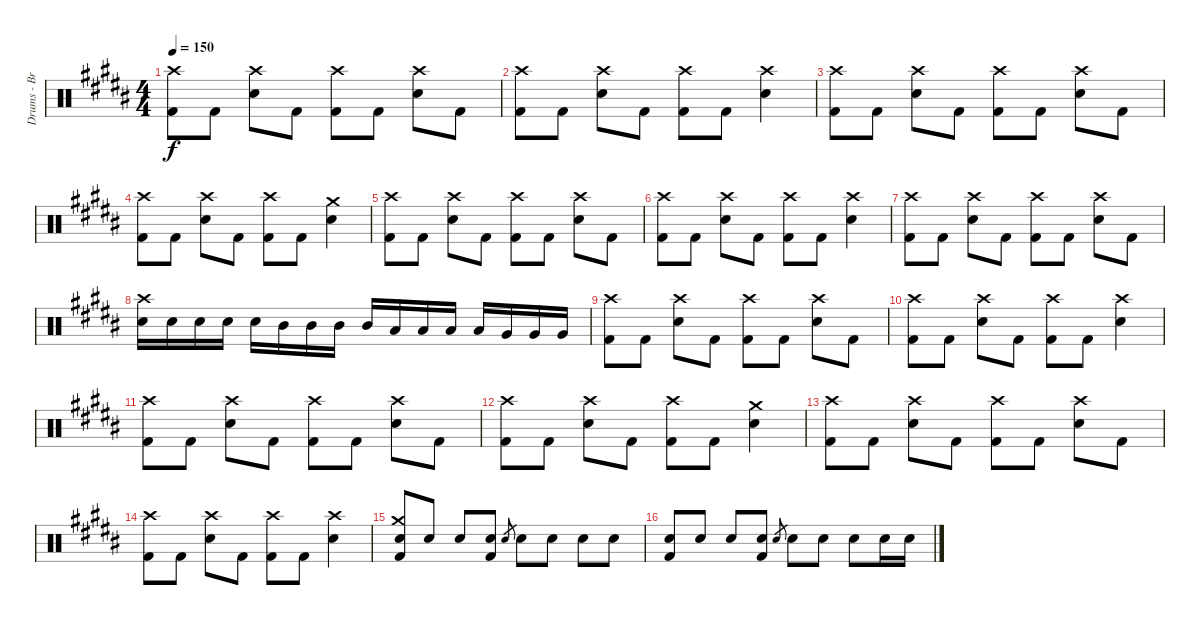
\track ("Drums - Brandon" "Drums - Br") {instrument percussion}
\staff {score}
\articulation defaults
\ts (4 4)
\tempo 150
\clef neutral
\ks b
("Crash high (hit)" "Kick (hit) 2").8{dy f} "Kick (hit) 2".8 ("Crash high (hit)" "Snare (hit) 2").8 "Kick (hit) 2".8 ("Crash high (hit)" "Kick (hit) 2").8 "Kick (hit) 2".8 ("Crash high (hit)" "Snare (hit) 2").8 "Kick (hit) 2".8 |
("Crash high (hit)" "Kick (hit) 2").8 "Kick (hit) 2".8 ("Crash high (hit)" "Snare (hit) 2").8 "Kick (hit) 2".8 ("Crash high (hit)" "Kick (hit) 2").8 "Kick (hit) 2".8 ("Crash high (hit)" "Snare (hit) 2").4 |
("Crash high (hit)" "Kick (hit) 2").8 "Kick (hit) 2".8 ("Crash high (hit)" "Snare (hit) 2").8 "Kick (hit) 2".8 ("Crash high (hit)" "Kick (hit) 2").8 "Kick (hit) 2".8 ("Crash high (hit)" "Snare (hit) 2").8 "Kick (hit) 2".8 |
("Crash high (hit)" "Kick (hit) 2").8 "Kick (hit) 2".8 ("Crash high (hit)" "Snare (hit) 2").8 "Kick (hit) 2".8 ("Crash high (hit)" "Kick (hit) 2").8 "Kick (hit) 2".8 ("Crash medium (hit)" "Snare (hit) 2").4 |
("Crash high (hit)" "Kick (hit) 2").8 "Kick (hit) 2".8 ("Crash high (hit)" "Snare (hit) 2").8 "Kick (hit) 2".8 ("Crash high (hit)" "Kick (hit) 2").8 "Kick (hit) 2".8 ("Crash high (hit)" "Snare (hit) 2").8 "Kick (hit) 2".8 |
("Crash high (hit)" "Kick (hit) 2").8 "Kick (hit) 2".8 ("Crash high (hit)" "Snare (hit) 2").8 "Kick (hit) 2".8 ("Crash high (hit)" "Kick (hit) 2").8 "Kick (hit) 2".8 ("Crash high (hit)" "Snare (hit) 2").4 |
("Crash high (hit)" "Kick (hit) 2").8 "Kick (hit) 2".8 ("Crash high (hit)" "Snare (hit) 2").8 "Kick (hit) 2".8 ("Crash high (hit)" "Kick (hit) 2").8 "Kick (hit) 2".8 ("Crash high (hit)" "Snare (hit) 2").8 "Kick (hit) 2".8 |
("Crash high (hit)" "Snare (hit) 2").16 "Snare (hit) 2".16 "Snare (hit) 2".16 "Snare (hit) 2".16 "Snare (hit) 2".16 "Mid Tom (hit)".16 "Mid Tom (hit)".16 "Mid Tom (hit)".16 "Mid Tom (hit)".16 "Low Tom (hit)".16 "Low Tom (hit)".16 "Low Tom (hit)".16 "Low Tom (hit)".16 "Very Low Tom (hit)".16 "Very Low Tom (hit)".16 "Very Low Tom (hit)".16 |
("Crash high (hit)" "Kick (hit) 2").8 "Kick (hit) 2".8 ("Crash high (hit)" "Snare (hit) 2").8 "Kick (hit) 2".8 ("Crash high (hit)" "Kick (hit) 2").8 "Kick (hit) 2".8 ("Crash high (hit)" "Snare (hit) 2").8 "Kick (hit) 2".8 |
("Crash high (hit)" "Kick (hit) 2").8 "Kick (hit) 2".8 ("Crash high (hit)" "Snare (hit) 2").8 "Kick (hit) 2".8 ("Crash high (hit)" "Kick (hit) 2").8 "Kick (hit) 2".8 ("Crash high (hit)" "Snare (hit) 2").4 |
("Crash high (hit)" "Kick (hit) 2").8 "Kick (hit) 2".8 ("Crash high (hit)" "Snare (hit) 2").8 "Kick (hit) 2".8 ("Crash high (hit)" "Kick (hit) 2").8 "Kick (hit) 2".8 ("Crash high (hit)" "Snare (hit) 2").8 "Kick (hit) 2".8 |
("Crash high (hit)" "Kick (hit) 2").8 "Kick (hit) 2".8 ("Crash high (hit)" "Snare (hit) 2").8 "Kick (hit) 2".8 ("Crash high (hit)" "Kick (hit) 2").8 "Kick (hit) 2".8 ("Crash medium (hit)" "Snare (hit) 2").4 |
("Crash high (hit)" "Kick (hit) 2").8 "Kick (hit) 2".8 ("Crash high (hit)" "Snare (hit) 2").8 "Kick (hit) 2".8 ("Crash high (hit)" "Kick (hit) 2").8 "Kick (hit) 2".8 ("Crash high (hit)" "Snare (hit) 2").8 "Kick (hit) 2".8 |
("Crash high (hit)" "Kick (hit) 2").8 "Kick (hit) 2".8 ("Crash high (hit)" "Snare (hit) 2").8 "Kick (hit) 2".8 ("Crash high (hit)" "Kick (hit) 2").8 "Kick (hit) 2".8 ("Crash high (hit)" "Snare (hit) 2").4 |
("Crash medium (hit)" "Kick (hit) 2" "Electric Snare (hit)").8 "Electric Snare (hit)".8 "Electric Snare (hit)".8 ("Kick (hit) 2" "Electric Snare (hit)").8 "Electric Snare (hit)".8{gr} "Electric Snare (hit)".8 "Electric Snare (hit)".8 "Electric Snare (hit)".8 "Electric Snare (hit)".8 |
("Kick (hit) 2" "Electric Snare (hit)").8 "Electric Snare (hit)".8 "Electric Snare (hit)".8 ("Kick (hit) 2" "Electric Snare (hit)").8 "Electric Snare (hit)".8{gr} "Electric Snare (hit)".8 "Electric Snare (hit)".8 "Electric Snare (hit)".8 "Electric Snare (hit)".16 "Electric Snare (hit)".16
